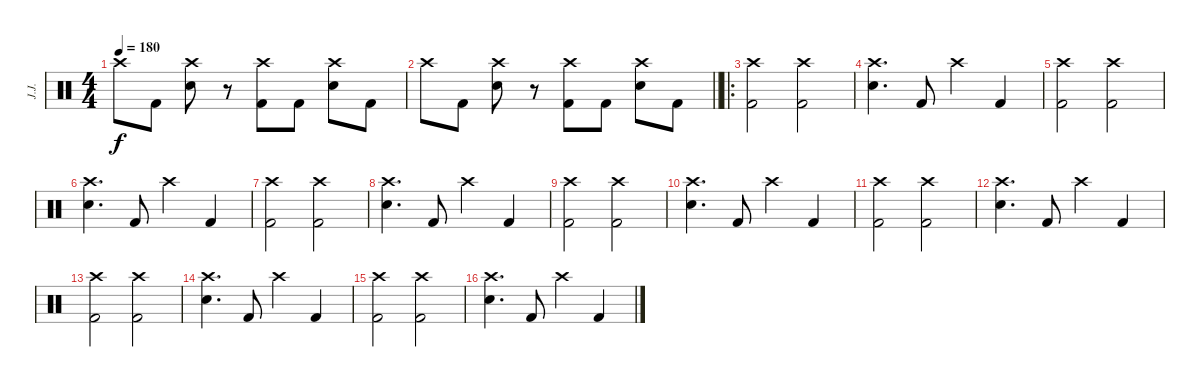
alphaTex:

\track ("J.J." "J.J.") {instrument percussion}
\staff {score}
\articulation defaults
\ts (4 4)
\tempo 180
\clef neutral
\ks c "Crash high (hit)".8{dy f} "Kick (hit) 2".8
("Crash high (hit)" "Electric Snare (hit)").8 r.8 ("Crash high (hit)" "Kick (hit) 2").8 "Kick (hit) 2".8 ("Crash high (hit)" "Electric Snare (hit)").8 "Kick (hit) 2".8 |
\barLineRight lightlight "Crash high (hit)".8 "Kick (hit) 2".8
("Crash high (hit)" "Electric Snare (hit)").8 r.8 ("Crash high (hit)" "Kick (hit) 2").8 "Kick (hit) 2".8 ("Crash high (hit)" "Electric Snare (hit)").8 "Kick (hit) 2".8 |
\ro
("Crash high (hit)" "Kick (hit) 2").2 ("Crash high (hit)" "Kick (hit) 2").2 |
("Crash high (hit)" "Electric Snare (hit)").4{d} "Kick (hit) 2".8 "Crash high (hit)".4 "Kick (hit) 2".4 |
("Crash high (hit)" "Kick (hit) 2").2 ("Crash high (hit)" "Kick (hit) 2").2 |
("Crash high (hit)" "Electric Snare (hit)").4{d} "Kick (hit) 2".8 "Crash high (hit)".4 "Kick (hit) 2".4 |
("Crash high (hit)" "Kick (hit) 2").2 ("Crash high (hit)" "Kick (hit) 2").2 |
("Crash high (hit)" "Electric Snare (hit)").4{d} "Kick (hit) 2".8 "Crash high (hit)".4 "Kick (hit) 2".4 |
("Crash high (hit)" "Kick (hit) 2").2 ("Crash high (hit)" "Kick (hit) 2").2 |
("Crash high (hit)" "Electric Snare (hit)").4{d} "Kick (hit) 2".8 "Crash high (hit)".4 "Kick (hit) 2".4 |
("Crash high (hit)" "Kick (hit) 2").2 ("Crash high (hit)" "Kick (hit) 2").2 |
("Crash high (hit)" "Electric Snare (hit)").4{d} "Kick (hit) 2".8 "Crash high (hit)".4 "Kick (hit) 2".4 |
("Crash high (hit)" "Kick (hit) 2").2 ("Crash high (hit)" "Kick (hit) 2").2 |
("Crash high (hit)" "Electric Snare (hit)").4{d} "Kick (hit) 2".8 "Crash high (hit)".4 "Kick (hit) 2".4 |
("Crash high (hit)" "Kick (hit) 2").2 ("Crash high (hit)" "Kick (hit) 2").2 |
("Crash high (hit)" "Electric Snare (hit)").4{d} "Kick (hit) 2".8 "Crash high (hit)".4 "Kick (hit) 2".4
